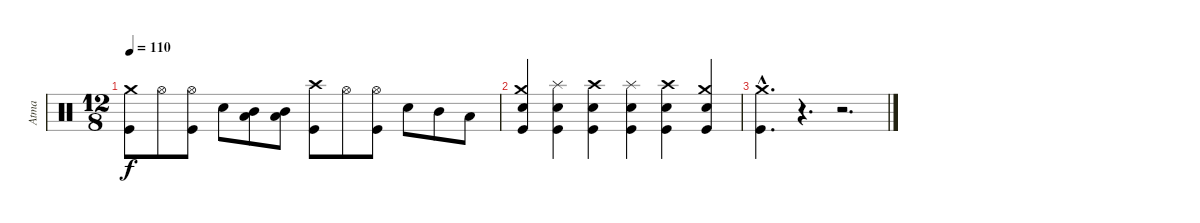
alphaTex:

\track ("Atma" "Atma") {instrument percussion}
\staff {score}
\articulation defaults
\ts (12 8)
\tempo 110
\clef neutral
\ks c
("Kick (hit)" "Crash medium (hit)").8{dy f} "Hi-Hat (open)".8 ("Kick (hit)" "Hi-Hat (open)").8 "Snare (hit) 2".8 ("Mid Tom (hit)" "Low Tom (hit)").8 ("Mid Tom (hit)" "Low Tom (hit)").8 ("Kick (hit)" "Crash high (hit)").8 "Hi-Hat (open)".8 ("Kick (hit)" "Hi-Hat (open)").8 "Snare (hit) 2".8 "Mid Tom (hit)".8 "Low Tom (hit)".8 |
("Kick (hit)" "Snare (hit) 2" "Crash medium (hit)").4 ("Kick (hit)" "Snare (hit) 2" "Splash (hit)").4 ("Kick (hit)" "Snare (hit) 2" "Crash high (hit)").4 ("Kick (hit)" "Snare (hit) 2" "Splash (hit)").4 ("Kick (hit)" "Snare (hit) 2" "Crash high (hit)").4 ("Kick (hit)" "Snare (hit) 2" "Crash medium (hit)").4 |
("Kick (hit)"{hac} "Crash medium (hit)"{hac}).4{d} r.4{d} r.2{d}
